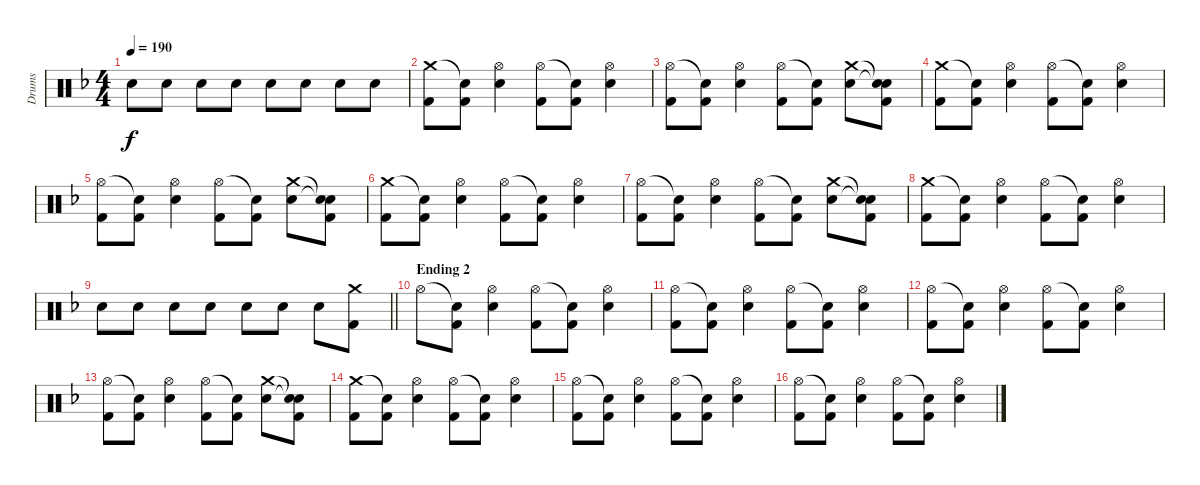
\track ("Drums" "Drums") {instrument percussion}
\staff {score}
\articulation defaults
\ts (4 4)
\tempo 190
\clef neutral
\ks dminor "Electric Snare (hit)".8{dy f} "Electric Snare (hit)".8 "Electric Snare (hit)".8 "Electric Snare (hit)".8 "Electric Snare (hit)".8 "Electric Snare (hit)".8 "Electric Snare (hit)".8 "Electric Snare (hit)".8
|
("Crash medium (hit)" "Kick (hit) 2").8 ("Snare (hit)"{t} "Kick (hit) 2").8 ("Hi-Hat (open)" "Electric Snare (hit)").4 ("Hi-Hat (open)" "Kick (hit) 2").8 ("Snare (hit)"{t} "Kick (hit) 2").8 ("Hi-Hat (open)" "Electric Snare (hit)").4 |
("Hi-Hat (open)" "Kick (hit) 2").8 ("Snare (hit)"{t} "Kick (hit) 2").8 ("Hi-Hat (open)" "Electric Snare (hit)").4 ("Hi-Hat (open)" "Kick (hit) 2").8 ("Snare (hit)"{t} "Kick (hit) 2").8 ("Crash medium (hit)" "Electric Snare (hit)").8 ("Snare (hit)"{t} "Snare (hit)"{t} "Kick (hit) 2").8 |
("Crash medium (hit)" "Kick (hit) 2").8 ("Snare (hit)"{t} "Kick (hit) 2").8 ("Hi-Hat (open)" "Electric Snare (hit)").4 ("Hi-Hat (open)" "Kick (hit) 2").8 ("Snare (hit)"{t} "Kick (hit) 2").8 ("Hi-Hat (open)" "Electric Snare (hit)").4 |
("Hi-Hat (open)" "Kick (hit) 2").8 ("Snare (hit)"{t} "Kick (hit) 2").8 ("Hi-Hat (open)" "Electric Snare (hit)").4 ("Hi-Hat (open)" "Kick (hit) 2").8 ("Snare (hit)"{t} "Kick (hit) 2").8 ("Crash medium (hit)" "Electric Snare (hit)").8 ("Snare (hit)"{t} "Snare (hit)"{t} "Kick (hit) 2").8 |
("Crash medium (hit)" "Kick (hit) 2").8 ("Snare (hit)"{t} "Kick (hit) 2").8 ("Hi-Hat (open)" "Electric Snare (hit)").4 ("Hi-Hat (open)" "Kick (hit) 2").8 ("Snare (hit)"{t} "Kick (hit) 2").8 ("Hi-Hat (open)" "Electric Snare (hit)").4 |
("Hi-Hat (open)" "Kick (hit) 2").8 ("Snare (hit)"{t} "Kick (hit) 2").8 ("Hi-Hat (open)" "Electric Snare (hit)").4 ("Hi-Hat (open)" "Kick (hit) 2").8 ("Snare (hit)"{t} "Kick (hit) 2").8 ("Crash medium (hit)" "Electric Snare (hit)").8 ("Snare (hit)"{t} "Snare (hit)"{t} "Kick (hit) 2").8 |
("Crash medium (hit)" "Kick (hit) 2").8 ("Snare (hit)"{t} "Kick (hit) 2").8 ("Hi-Hat (open)" "Electric Snare (hit)").4 ("Hi-Hat (open)" "Kick (hit) 2").8 ("Snare (hit)"{t} "Kick (hit) 2").8 ("Hi-Hat (open)" "Electric Snare (hit)").4 |
\barLineRight lightlight "Electric Snare (hit)".8 "Electric Snare (hit)".8 "Electric Snare (hit)".8 "Electric Snare (hit)".8 "Electric Snare (hit)".8 "Electric Snare (hit)".8 "Electric Snare (hit)".8
("Crash medium (hit)" "Kick (hit) 2").8 |
\section ("" "Ending 2")
"Hi-Hat (open)".8 ("Snare (hit)"{t} "Kick (hit) 2").8 ("Hi-Hat (open)" "Electric Snare (hit)").4 ("Hi-Hat (open)" "Kick (hit) 2").8 ("Snare (hit)"{t} "Kick (hit) 2").8 ("Hi-Hat (open)" "Electric Snare (hit)").4 |
("Hi-Hat (open)" "Kick (hit) 2").8 ("Snare (hit)"{t} "Kick (hit) 2").8 ("Hi-Hat (open)" "Electric Snare (hit)").4 ("Hi-Hat (open)" "Kick (hit) 2").8 ("Snare (hit)"{t} "Kick (hit) 2").8 ("Hi-Hat (open)" "Electric Snare (hit)").4 |
("Hi-Hat (open)" "Kick (hit) 2").8 ("Snare (hit)"{t} "Kick (hit) 2").8 ("Hi-Hat (open)" "Electric Snare (hit)").4 ("Hi-Hat (open)" "Kick (hit) 2").8 ("Snare (hit)"{t} "Kick (hit) 2").8 ("Hi-Hat (open)" "Electric Snare (hit)").4 |
("Hi-Hat (open)" "Kick (hit) 2").8 ("Snare (hit)"{t} "Kick (hit) 2").8 ("Hi-Hat (open)" "Electric Snare (hit)").4 ("Hi-Hat (open)" "Kick (hit) 2").8 ("Snare (hit)"{t} "Kick (hit) 2").8 ("Crash medium (hit)" "Electric Snare (hit)").8 ("Snare (hit)"{t} "Snare (hit)"{t} "Kick (hit) 2").8 |
("Crash medium (hit)" "Kick (hit) 2").8 ("Snare (hit)"{t} "Kick (hit) 2").8 ("Hi-Hat (open)" "Electric Snare (hit)").4 ("Hi-Hat (open)" "Kick (hit) 2").8 ("Snare (hit)"{t} "Kick (hit) 2").8 ("Hi-Hat (open)" "Electric Snare (hit)").4 |
("Hi-Hat (open)" "Kick (hit) 2").8 ("Snare (hit)"{t} "Kick (hit) 2").8 ("Hi-Hat (open)" "Electric Snare (hit)").4 ("Hi-Hat (open)" "Kick (hit) 2").8 ("Snare (hit)"{t} "Kick (hit) 2").8 ("Hi-Hat (open)" "Electric Snare (hit)").4 |
("Hi-Hat (open)" "Kick (hit) 2").8 ("Snare (hit)"{t} "Kick (hit) 2").8 ("Hi-Hat (open)" "Electric Snare (hit)").4 ("Hi-Hat (open)" "Kick (hit) 2").8 ("Snare (hit)"{t} "Kick (hit) 2").8 ("Hi-Hat (open)" "Electric Snare (hit)").4
